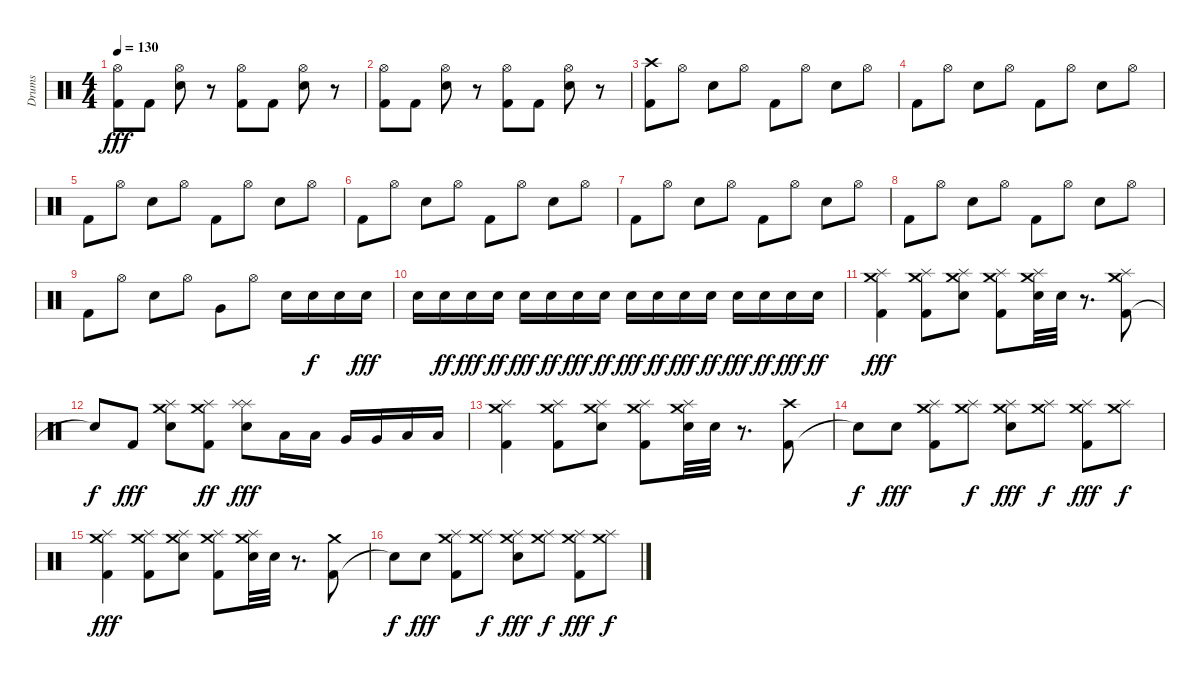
\track ("Drums" "Drums") {instrument percussion}
\staff {score}
\articulation defaults
\ts (4 4)
\tempo 130
\clef neutral
\ks c
("Kick (hit) 2" "Hi-Hat (open)").8{dy fff} "Kick (hit) 2".8 ("Snare (hit) 2" "Hi-Hat (open)").8 r.8 ("Kick (hit) 2" "Hi-Hat (open)").8 "Kick (hit) 2".8 ("Snare (hit) 2" "Hi-Hat (open)").8 r.8 |
("Kick (hit) 2" "Hi-Hat (open)").8 "Kick (hit) 2".8 ("Snare (hit) 2" "Hi-Hat (open)").8 r.8 ("Kick (hit) 2" "Hi-Hat (open)").8 "Kick (hit) 2".8 ("Snare (hit) 2" "Hi-Hat (open)").8 r.8 |
("Kick (hit) 2" "Crash high (hit)").8 "Hi-Hat (open)".8 "Snare (hit) 2".8 "Hi-Hat (open)".8 "Kick (hit) 2".8 "Hi-Hat (open)".8 "Snare (hit) 2".8 "Hi-Hat (open)".8 |
"Kick (hit) 2".8 "Hi-Hat (open)".8 "Snare (hit) 2".8 "Hi-Hat (open)".8 "Kick (hit) 2".8 "Hi-Hat (open)".8 "Snare (hit) 2".8 "Hi-Hat (open)".8 |
"Kick (hit) 2".8 "Hi-Hat (open)".8 "Snare (hit) 2".8 "Hi-Hat (open)".8 "Kick (hit) 2".8 "Hi-Hat (open)".8 "Snare (hit) 2".8 "Hi-Hat (open)".8 |
"Kick (hit) 2".8 "Hi-Hat (open)".8 "Snare (hit) 2".8 "Hi-Hat (open)".8 "Kick (hit) 2".8 "Hi-Hat (open)".8 "Snare (hit) 2".8 "Hi-Hat (open)".8 |
"Kick (hit) 2".8 "Hi-Hat (open)".8 "Snare (hit) 2".8 "Hi-Hat (open)".8 "Kick (hit) 2".8 "Hi-Hat (open)".8 "Snare (hit) 2".8 "Hi-Hat (open)".8 |
"Kick (hit) 2".8 "Hi-Hat (open)".8 "Snare (hit) 2".8 "Hi-Hat (open)".8 "Kick (hit) 2".8 "Hi-Hat (open)".8 "Snare (hit) 2".8 "Hi-Hat (open)".8 |
"Kick (hit) 2".8 "Hi-Hat (open)".8 "Snare (hit) 2".8 "Hi-Hat (open)".8 "Very Low Tom (hit)".8 "Hi-Hat (open)".8 "Snare (hit) 2".16 "Snare (hit) 2".16{dy f} "Snare (hit) 2".16 "Snare (hit) 2".16{dy fff} |
"Snare (hit) 2".16 "Snare (hit) 2".16{dy ff} "Snare (hit) 2".16{dy fff} "Snare (hit) 2".16{dy ff} "Snare (hit) 2".16{dy fff} "Snare (hit) 2".16{dy ff} "Snare (hit) 2".16{dy fff} "Snare (hit) 2".16{dy ff} "Snare (hit) 2".16{dy fff} "Snare (hit) 2".16{dy ff} "Snare (hit) 2".16{dy fff} "Snare (hit) 2".16{dy ff} "Snare (hit) 2".16{dy fff} "Snare (hit) 2".16{dy ff} "Snare (hit) 2".16{dy fff} "Snare (hit) 2".16{dy ff} |
("Kick (hit) 2" "Crash medium (hit)" "Splash (hit)").4{dy fff} ("Kick (hit) 2" "Crash medium (hit)" "Splash (hit)").8 ("Snare (hit) 2" "Crash medium (hit)" "Splash (hit)").8 ("Kick (hit) 2" "Crash medium (hit)" "Splash (hit)").8 ("Snare (hit) 2" "Crash medium (hit)" "Splash (hit)").32 "Snare (hit) 2".32 r.8{d} ("Kick (hit) 2" "Crash medium (hit)" "Splash (hit)").8 |
"Snare (hit)"{t}.8{dy f} "Kick (hit) 2".8{dy fff} ("Snare (hit) 2" "Crash medium (hit)" "Splash (hit)").8 ("Kick (hit) 2" "Crash medium (hit)" "Splash (hit)").8{dy ff} ("Snare (hit) 2" "Splash (hit)" "Splash (hit)").8{dy fff} "Low Tom (hit)".16 "Low Tom (hit)".16 "Very Low Tom (hit)".16 "Very Low Tom (hit)".16 "Low Floor Tom (hit)".16 "Low Floor Tom (hit)".16 |
("Kick (hit) 2" "Crash medium (hit)" "Splash (hit)").4 ("Kick (hit) 2" "Crash medium (hit)" "Splash (hit)").8 ("Snare (hit) 2" "Crash medium (hit)" "Splash (hit)").8 ("Kick (hit) 2" "Crash medium (hit)" "Splash (hit)").8 ("Snare (hit) 2" "Crash medium (hit)" "Splash (hit)").32 "Snare (hit) 2".32 r.8{d} ("Kick (hit) 2" "Crash high (hit)").8 |
"Snare (hit)"{t}.8{dy f} "Snare (hit) 2".8{dy fff} ("Kick (hit) 2" "Crash medium (hit)" "Splash (hit)").8 ("Crash medium (hit)" "Splash (hit)").8{dy f} ("Snare (hit) 2" "Crash medium (hit)" "Splash (hit)").8{dy fff} ("Crash medium (hit)" "Splash (hit)").8{dy f} ("Kick (hit) 2" "Crash medium (hit)" "Splash (hit)").8{dy fff} ("Crash medium (hit)" "Splash (hit)").8{dy f} |
("Kick (hit) 2" "Crash medium (hit)" "Splash (hit)").4{dy fff} ("Kick (hit) 2" "Crash medium (hit)" "Splash (hit)").8 ("Snare (hit) 2" "Crash medium (hit)" "Splash (hit)").8 ("Kick (hit) 2" "Crash medium (hit)" "Splash (hit)").8 ("Snare (hit) 2" "Crash medium (hit)" "Splash (hit)").32 "Snare (hit) 2".32 r.8{d} ("Kick (hit) 2" "Crash medium (hit)").8 |
"Snare (hit)"{t}.8{dy f} "Snare (hit) 2".8{dy fff} ("Kick (hit) 2" "Crash medium (hit)" "Splash (hit)").8 ("Crash medium (hit)" "Splash (hit)").8{dy f} ("Snare (hit) 2" "Crash medium (hit)" "Splash (hit)").8{dy fff} ("Crash medium (hit)" "Splash (hit)").8{dy f} ("Kick (hit) 2" "Crash medium (hit)" "Splash (hit)").8{dy fff} ("Crash medium (hit)" "Splash (hit)").8{dy f}
